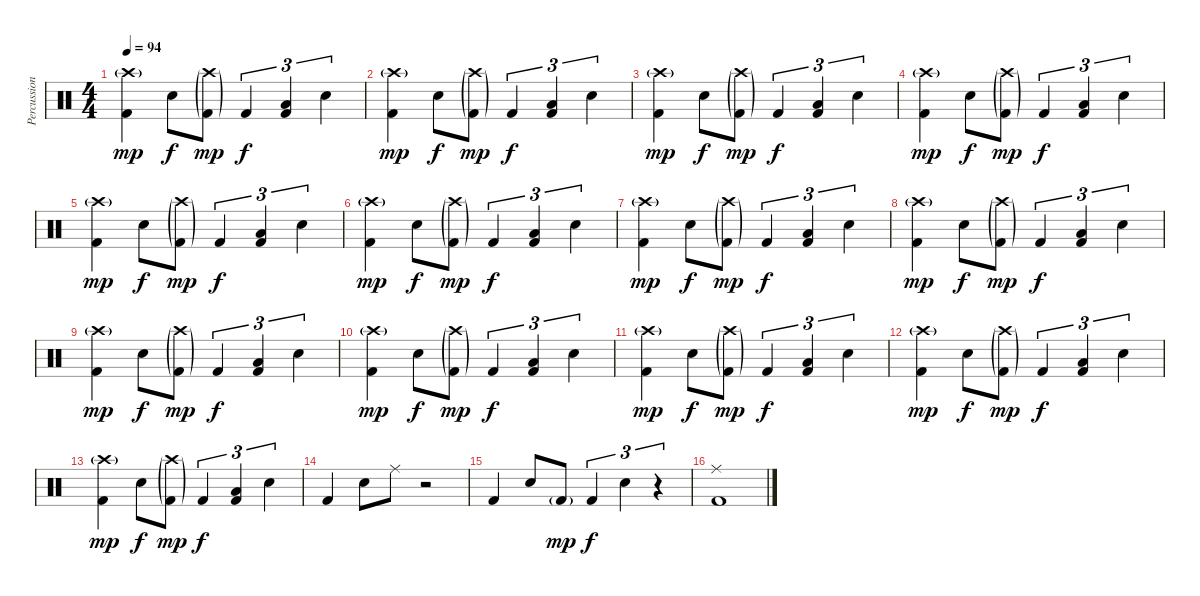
\track ("Percussion" "Percussion") {instrument percussion}
\staff {score}
\articulation defaults
\ts (4 4)
\tempo 94
\clef neutral
\ks c
("Crash high (hit)"{g} "Kick (hit) 2").4{dy mp} "Snare (hit) 2".8{dy f} ("Crash high (hit)"{g} "Kick (hit) 2"{g}).8{dy mp} "Kick (hit) 2".4{tu (3 2) dy f} ("Low Floor Tom (hit)" "Kick (hit) 2").4{tu (3 2)} "Snare (hit) 2".4{tu (3 2)} |
("Crash high (hit)"{g} "Kick (hit) 2").4{dy mp} "Snare (hit) 2".8{dy f} ("Crash high (hit)"{g} "Kick (hit) 2"{g}).8{dy mp} "Kick (hit) 2".4{tu (3 2) dy f} ("Low Floor Tom (hit)" "Kick (hit) 2").4{tu (3 2)} "Snare (hit) 2".4{tu (3 2)} |
("Crash high (hit)"{g} "Kick (hit) 2").4{dy mp} "Snare (hit) 2".8{dy f} ("Crash high (hit)"{g} "Kick (hit) 2"{g}).8{dy mp} "Kick (hit) 2".4{tu (3 2) dy f} ("Low Floor Tom (hit)" "Kick (hit) 2").4{tu (3 2)} "Snare (hit) 2".4{tu (3 2)} |
("Crash high (hit)"{g} "Kick (hit) 2").4{dy mp} "Snare (hit) 2".8{dy f} ("Crash high (hit)"{g} "Kick (hit) 2"{g}).8{dy mp} "Kick (hit) 2".4{tu (3 2) dy f} ("Low Floor Tom (hit)" "Kick (hit) 2").4{tu (3 2)} "Snare (hit) 2".4{tu (3 2)} |
("Crash high (hit)"{g} "Kick (hit) 2").4{dy mp} "Snare (hit) 2".8{dy f} ("Crash high (hit)"{g} "Kick (hit) 2"{g}).8{dy mp} "Kick (hit) 2".4{tu (3 2) dy f} ("Low Floor Tom (hit)" "Kick (hit) 2").4{tu (3 2)} "Snare (hit) 2".4{tu (3 2)} |
("Crash high (hit)"{g} "Kick (hit) 2").4{dy mp} "Snare (hit) 2".8{dy f} ("Crash high (hit)"{g} "Kick (hit) 2"{g}).8{dy mp} "Kick (hit) 2".4{tu (3 2) dy f} ("Low Floor Tom (hit)" "Kick (hit) 2").4{tu (3 2)} "Snare (hit) 2".4{tu (3 2)} |
("Crash high (hit)"{g} "Kick (hit) 2").4{dy mp} "Snare (hit) 2".8{dy f} ("Crash high (hit)"{g} "Kick (hit) 2"{g}).8{dy mp} "Kick (hit) 2".4{tu (3 2) dy f} ("Low Floor Tom (hit)" "Kick (hit) 2").4{tu (3 2)} "Snare (hit) 2".4{tu (3 2)} |
("Crash high (hit)"{g} "Kick (hit) 2").4{dy mp} "Snare (hit) 2".8{dy f} ("Crash high (hit)"{g} "Kick (hit) 2"{g}).8{dy mp} "Kick (hit) 2".4{tu (3 2) dy f} ("Low Floor Tom (hit)" "Kick (hit) 2").4{tu (3 2)} "Snare (hit) 2".4{tu (3 2)} |
("Crash high (hit)"{g} "Kick (hit) 2").4{dy mp} "Snare (hit) 2".8{dy f} ("Crash high (hit)"{g} "Kick (hit) 2"{g}).8{dy mp} "Kick (hit) 2".4{tu (3 2) dy f} ("Low Floor Tom (hit)" "Kick (hit) 2").4{tu (3 2)} "Snare (hit) 2".4{tu (3 2)} |
("Crash high (hit)"{g} "Kick (hit) 2").4{dy mp} "Snare (hit) 2".8{dy f} ("Crash high (hit)"{g} "Kick (hit) 2"{g}).8{dy mp} "Kick (hit) 2".4{tu (3 2) dy f} ("Low Floor Tom (hit)" "Kick (hit) 2").4{tu (3 2)} "Snare (hit) 2".4{tu (3 2)} |
("Crash high (hit)"{g} "Kick (hit) 2").4{dy mp} "Snare (hit) 2".8{dy f} ("Crash high (hit)"{g} "Kick (hit) 2"{g}).8{dy mp} "Kick (hit) 2".4{tu (3 2) dy f} ("Low Floor Tom (hit)" "Kick (hit) 2").4{tu (3 2)} "Snare (hit) 2".4{tu (3 2)} |
("Crash high (hit)"{g} "Kick (hit) 2").4{dy mp} "Snare (hit) 2".8{dy f} ("Crash high (hit)"{g} "Kick (hit) 2"{g}).8{dy mp} "Kick (hit) 2".4{tu (3 2) dy f} ("Low Floor Tom (hit)" "Kick (hit) 2").4{tu (3 2)} "Snare (hit) 2".4{tu (3 2)} |
("Crash high (hit)"{g} "Kick (hit) 2").4{dy mp} "Snare (hit) 2".8{dy f} ("Crash high (hit)"{g} "Kick (hit) 2"{g}).8{dy mp} "Kick (hit) 2".4{tu (3 2) dy f} ("Low Floor Tom (hit)" "Kick (hit) 2").4{tu (3 2)} "Snare (hit) 2".4{tu (3 2)} |
"Kick (hit) 2".4 "Snare (hit) 2".8 "Ride (middle)".8 r.2 |
"Kick (hit) 2".4 "Snare (hit) 2".8 "Kick (hit) 2"{g}.8{dy mp} "Kick (hit) 2".4{tu (3 2) dy f} "Snare (hit) 2".4{tu (3 2)} r.4{tu (3 2)} |
("Ride (middle)" "Kick (hit) 2").1
